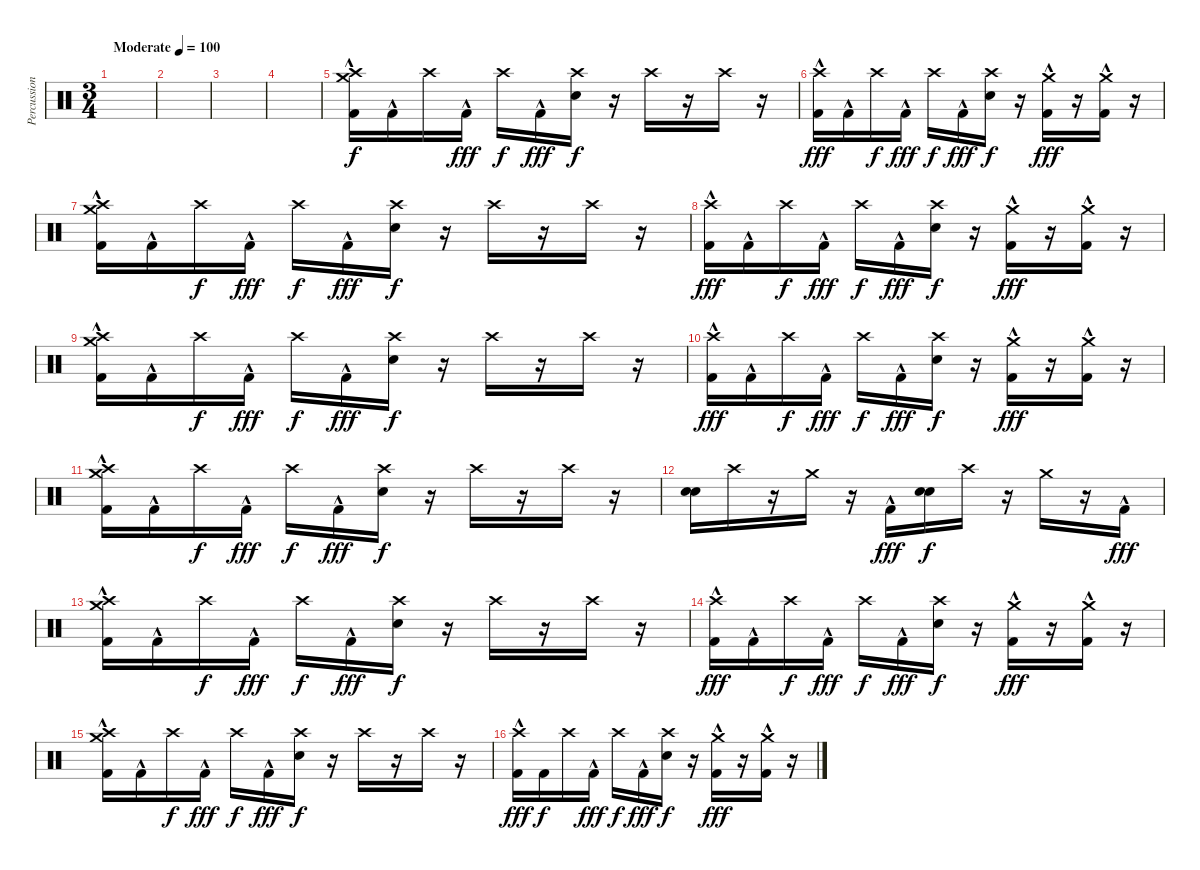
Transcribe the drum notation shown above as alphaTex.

\track ("Percussion" "Percussion") {instrument percussion}
\staff {score}
\articulation defaults
\ts (3 4)
\tempo (100 "Moderate")
\clef neutral
\ks c
|
|
|
|
("Kick (hit) 2"{hac} "Crash high (hit)" "Crash medium (hit)").16 "Kick (hit) 2"{hac}.16 "Crash high (hit)".16{dy f} "Kick (hit) 2"{hac}.16{dy fff} "Crash high (hit)".16{dy f} "Kick (hit) 2"{hac}.16{dy fff} ("Electric Snare (hit)" "Crash high (hit)").16{dy f} r.16 "Crash high (hit)".16 r.16 "Crash high (hit)".16 r.16 |
("Kick (hit) 2"{hac} "Crash high (hit)").16{dy fff} "Kick (hit) 2"{hac}.16 "Crash high (hit)".16{dy f} "Kick (hit) 2"{hac}.16{dy fff} "Crash high (hit)".16{dy f} "Kick (hit) 2"{hac}.16{dy fff} ("Electric Snare (hit)" "Crash high (hit)").16{dy f} r.16 ("Kick (hit) 2"{hac} "Crash medium (hit)").16{dy fff} r.16 ("Kick (hit) 2"{hac} "Crash medium (hit)").16 r.16 |
("Kick (hit) 2"{hac} "Crash high (hit)" "Crash medium (hit)").16 "Kick (hit) 2"{hac}.16 "Crash high (hit)".16{dy f} "Kick (hit) 2"{hac}.16{dy fff} "Crash high (hit)".16{dy f} "Kick (hit) 2"{hac}.16{dy fff} ("Electric Snare (hit)" "Crash high (hit)").16{dy f} r.16 "Crash high (hit)".16 r.16 "Crash high (hit)".16 r.16 |
("Kick (hit) 2"{hac} "Crash high (hit)").16{dy fff} "Kick (hit) 2"{hac}.16 "Crash high (hit)".16{dy f} "Kick (hit) 2"{hac}.16{dy fff} "Crash high (hit)".16{dy f} "Kick (hit) 2"{hac}.16{dy fff} ("Electric Snare (hit)" "Crash high (hit)").16{dy f} r.16 ("Kick (hit) 2"{hac} "Crash medium (hit)").16{dy fff} r.16 ("Kick (hit) 2"{hac} "Crash medium (hit)").16 r.16 |
("Kick (hit) 2"{hac} "Crash high (hit)" "Crash medium (hit)").16 "Kick (hit) 2"{hac}.16 "Crash high (hit)".16{dy f} "Kick (hit) 2"{hac}.16{dy fff} "Crash high (hit)".16{dy f} "Kick (hit) 2"{hac}.16{dy fff} ("Electric Snare (hit)" "Crash high (hit)").16{dy f} r.16 "Crash high (hit)".16 r.16 "Crash high (hit)".16 r.16 |
("Kick (hit) 2"{hac} "Crash high (hit)").16{dy fff} "Kick (hit) 2"{hac}.16 "Crash high (hit)".16{dy f} "Kick (hit) 2"{hac}.16{dy fff} "Crash high (hit)".16{dy f} "Kick (hit) 2"{hac}.16{dy fff} ("Electric Snare (hit)" "Crash high (hit)").16{dy f} r.16 ("Kick (hit) 2"{hac} "Crash medium (hit)").16{dy fff} r.16 ("Kick (hit) 2"{hac} "Crash medium (hit)").16 r.16 |
("Kick (hit) 2"{hac} "Crash high (hit)" "Crash medium (hit)").16 "Kick (hit) 2"{hac}.16 "Crash high (hit)".16{dy f} "Kick (hit) 2"{hac}.16{dy fff} "Crash high (hit)".16{dy f} "Kick (hit) 2"{hac}.16{dy fff} ("Electric Snare (hit)" "Crash high (hit)").16{dy f} r.16 "Crash high (hit)".16 r.16 "Crash high (hit)".16 r.16 |
("Electric Snare (hit)" "Electric Snare (hit)").16 "Crash high (hit)".16 r.16 "Crash medium (hit)".16 r.16 "Kick (hit) 2"{hac}.16{dy fff} ("Electric Snare (hit)" "Electric Snare (hit)").16{dy f} "Crash high (hit)".16 r.16 "Crash medium (hit)".16 r.16 "Kick (hit) 2"{hac}.16{dy fff} |
("Kick (hit) 2"{hac} "Crash high (hit)" "Crash medium (hit)").16 "Kick (hit) 2"{hac}.16 "Crash high (hit)".16{dy f} "Kick (hit) 2"{hac}.16{dy fff} "Crash high (hit)".16{dy f} "Kick (hit) 2"{hac}.16{dy fff} ("Electric Snare (hit)" "Crash high (hit)").16{dy f} r.16 "Crash high (hit)".16 r.16 "Crash high (hit)".16 r.16 |
("Kick (hit) 2"{hac} "Crash high (hit)").16{dy fff} "Kick (hit) 2"{hac}.16 "Crash high (hit)".16{dy f} "Kick (hit) 2"{hac}.16{dy fff} "Crash high (hit)".16{dy f} "Kick (hit) 2"{hac}.16{dy fff} ("Electric Snare (hit)" "Crash high (hit)").16{dy f} r.16 ("Kick (hit) 2"{hac} "Crash medium (hit)").16{dy fff} r.16 ("Kick (hit) 2"{hac} "Crash medium (hit)").16 r.16 |
("Kick (hit) 2"{hac} "Crash high (hit)" "Crash medium (hit)").16 "Kick (hit) 2"{hac}.16 "Crash high (hit)".16{dy f} "Kick (hit) 2"{hac}.16{dy fff} "Crash high (hit)".16{dy f} "Kick (hit) 2"{hac}.16{dy fff} ("Electric Snare (hit)" "Crash high (hit)").16{dy f} r.16 "Crash high (hit)".16 r.16 "Crash high (hit)".16 r.16 |
("Kick (hit) 2"{hac} "Crash high (hit)").16{dy fff} "Kick (hit) 2".16{dy f} "Crash high (hit)".16 "Kick (hit) 2"{hac}.16{dy fff} "Crash high (hit)".16{dy f} "Kick (hit) 2"{hac}.16{dy fff} ("Electric Snare (hit)" "Crash high (hit)").16{dy f} r.16 ("Kick (hit) 2"{hac} "Crash medium (hit)").16{dy fff} r.16 ("Kick (hit) 2"{hac} "Crash medium (hit)").16 r.16
